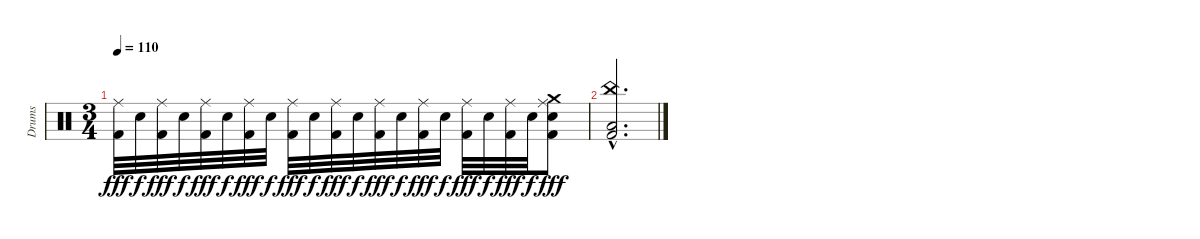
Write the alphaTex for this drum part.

\track ("Drums" "Drums") {instrument percussion}
\staff {score}
\articulation defaults
\ts (3 4)
\tempo 110
\clef neutral
\ks c
("Ride (middle)" "Kick (hit) 2").32{dy fff} "Electric Snare (hit)".32{dy f} ("Ride (middle)" "Kick (hit) 2").32{dy fff} "Electric Snare (hit)".32{dy f} ("Ride (middle)" "Kick (hit) 2").32{dy fff} "Electric Snare (hit)".32{dy f} ("Ride (middle)" "Kick (hit) 2").32{dy fff} "Electric Snare (hit)".32{dy f} ("Ride (middle)" "Kick (hit) 2").32{dy fff} "Electric Snare (hit)".32{dy f} ("Ride (middle)" "Kick (hit) 2").32{dy fff} "Electric Snare (hit)".32{dy f} ("Ride (middle)" "Kick (hit) 2").32{dy fff} "Electric Snare (hit)".32{dy f} ("Ride (middle)" "Kick (hit) 2").32{dy fff} "Electric Snare (hit)".32{dy f} ("Ride (middle)" "Kick (hit) 2").32{dy fff} "Electric Snare (hit)".32{dy f} ("Ride (middle)" "Kick (hit) 2").32{dy fff} "Electric Snare (hit)".32{dy f} ("Crash medium (hit)" "Ride (middle)" "Electric Snare (hit)" "Kick (hit) 2").8{dy fff} |
("China (hit)"{hac} "Low Tom (hit)"{hac} "Kick (hit) 2"{hac}).2{d}
